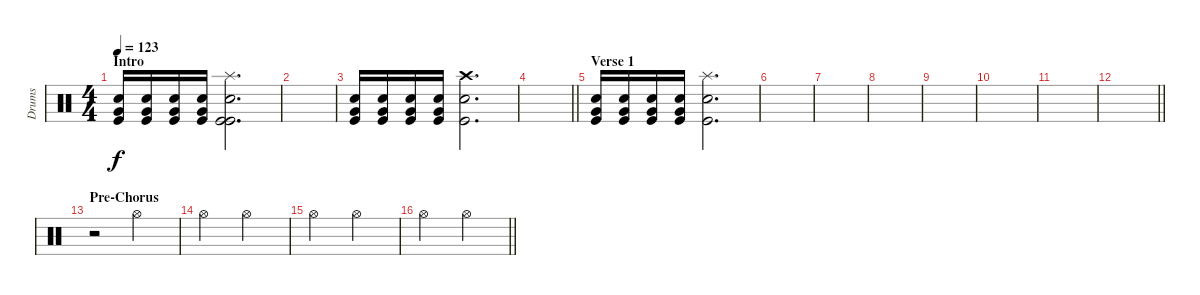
\track ("Drums" "Drums") {instrument percussion}
\staff {score}
\articulation defaults
\ts (4 4)
\section ("" "Intro")
\tempo 123
\clef neutral
\ks c
("Kick (hit)" "Electric Snare (hit)" "Very Low Tom (hit)").16{dy f} ("Kick (hit)" "Electric Snare (hit)" "Very Low Tom (hit)").16 ("Kick (hit)" "Electric Snare (hit)" "Very Low Tom (hit)").16 ("Kick (hit)" "Electric Snare (hit)" "Very Low Tom (hit)").16 ("Splash (hit)" "Kick (hit)" "Electric Snare (hit)" "Kick (hit)").2{d} |
|
("Kick (hit)" "Electric Snare (hit)" "Very Low Tom (hit)").16 ("Kick (hit)" "Electric Snare (hit)" "Very Low Tom (hit)").16 ("Kick (hit)" "Electric Snare (hit)" "Very Low Tom (hit)").16 ("Kick (hit)" "Electric Snare (hit)" "Very Low Tom (hit)").16 ("Crash high (hit)" "Electric Snare (hit)" "Kick (hit)").2{d} |
\barLineRight lightlight
|
\section ("" "Verse 1")
("Kick (hit)" "Electric Snare (hit)" "Very Low Tom (hit)").16 ("Kick (hit)" "Electric Snare (hit)" "Very Low Tom (hit)").16 ("Kick (hit)" "Electric Snare (hit)" "Very Low Tom (hit)").16 ("Kick (hit)" "Electric Snare (hit)" "Very Low Tom (hit)").16 ("Splash (hit)" "Electric Snare (hit)" "Kick (hit)").2{d} |
|
|
|
|
|
|
\barLineRight lightlight
|
\section ("" "Pre-Chorus")
r.2 "Hi-Hat (open)".2 |
"Hi-Hat (open)".2 "Hi-Hat (open)".2 |
"Hi-Hat (open)".2 "Hi-Hat (open)".2 |
\barLineRight lightlight "Hi-Hat (open)".2 "Hi-Hat (open)".2
